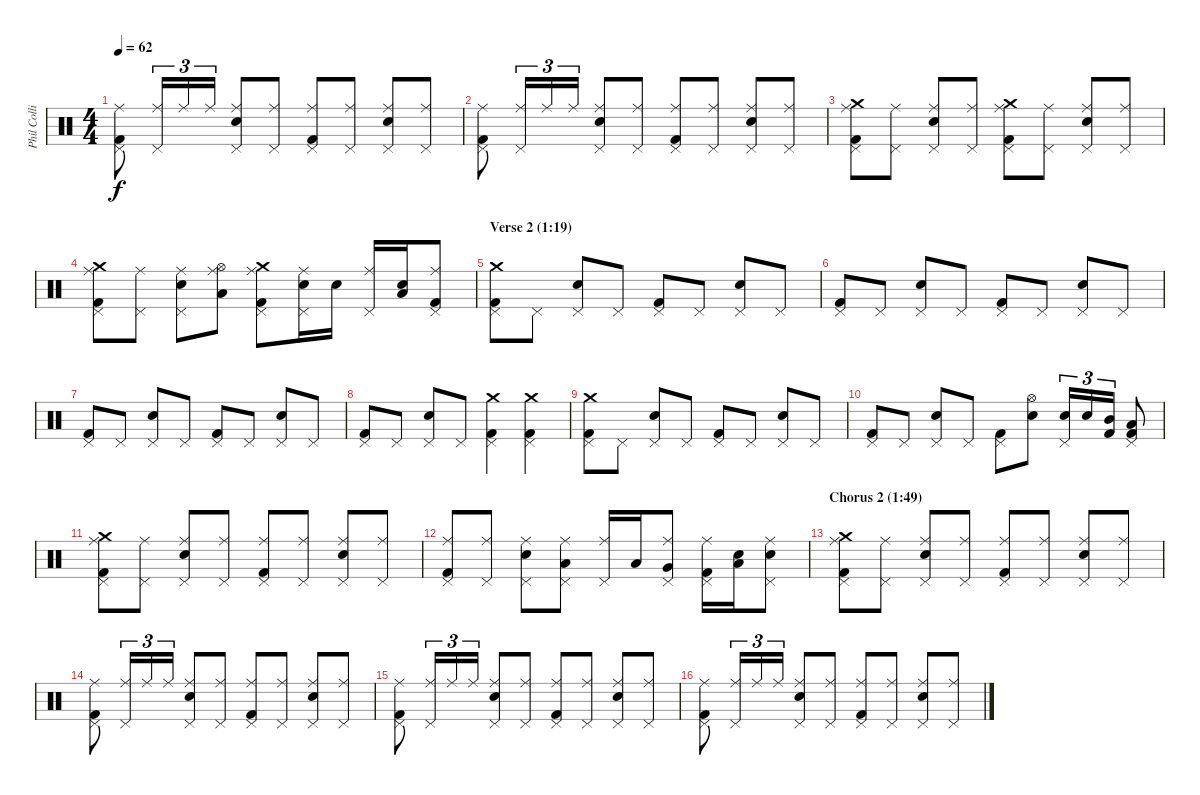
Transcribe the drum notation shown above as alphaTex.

\track ("Phil Collins (drums)" "Phil Colli") {instrument percussion}
\staff {score}
\articulation defaults
\ts (4 4)
\tempo 62
\clef neutral
\ks c
("Ride (middle)" "Pedal Hi-Hat (hit)" "Kick (hit) 2").8{dy f} ("Ride (middle)" "Pedal Hi-Hat (hit)").16{tu (3 2)} "Ride (middle)".16{tu (3 2)} "Ride (middle)".16{tu (3 2)} ("Ride (middle)" "Pedal Hi-Hat (hit)" "Electric Snare (hit)").8 ("Ride (middle)" "Pedal Hi-Hat (hit)").8 ("Ride (middle)" "Pedal Hi-Hat (hit)" "Kick (hit) 2").8 ("Ride (middle)" "Pedal Hi-Hat (hit)").8 ("Ride (middle)" "Pedal Hi-Hat (hit)" "Electric Snare (hit)").8 ("Ride (middle)" "Pedal Hi-Hat (hit)").8 |
("Ride (middle)" "Pedal Hi-Hat (hit)" "Kick (hit) 2").8 ("Ride (middle)" "Pedal Hi-Hat (hit)").16{tu (3 2)} "Ride (middle)".16{tu (3 2)} "Ride (middle)".16{tu (3 2)} ("Ride (middle)" "Pedal Hi-Hat (hit)" "Electric Snare (hit)").8 ("Ride (middle)" "Pedal Hi-Hat (hit)").8 ("Ride (middle)" "Pedal Hi-Hat (hit)" "Kick (hit) 2").8 ("Ride (middle)" "Pedal Hi-Hat (hit)").8 ("Ride (middle)" "Pedal Hi-Hat (hit)" "Electric Snare (hit)").8 ("Ride (middle)" "Pedal Hi-Hat (hit)").8 |
("Crash medium (hit)" "Ride (middle)" "Pedal Hi-Hat (hit)" "Kick (hit) 2").8 ("Ride (middle)" "Pedal Hi-Hat (hit)").8 ("Ride (middle)" "Pedal Hi-Hat (hit)" "Electric Snare (hit)").8 ("Ride (middle)" "Pedal Hi-Hat (hit)").8 ("Crash medium (hit)" "Ride (middle)" "Pedal Hi-Hat (hit)" "Kick (hit) 2").8 ("Ride (middle)" "Pedal Hi-Hat (hit)").8 ("Ride (middle)" "Pedal Hi-Hat (hit)" "Electric Snare (hit)").8 ("Ride (middle)" "Pedal Hi-Hat (hit)").8 |
("Crash medium (hit)" "Ride (middle)" "Pedal Hi-Hat (hit)" "Kick (hit) 2").8 ("Ride (middle)" "Pedal Hi-Hat (hit)").8 ("Ride (middle)" "Pedal Hi-Hat (hit)" "Electric Snare (hit)").8 ("Ride (middle)" "Hi-Hat (open)" "Low Tom (hit)").8 ("Crash medium (hit)" "Ride (middle)" "Pedal Hi-Hat (hit)" "Kick (hit) 2").8 ("Ride (middle)" "Pedal Hi-Hat (hit)" "Electric Snare (hit)").16 "Electric Snare (hit)".16 ("Ride (middle)" "Pedal Hi-Hat (hit)").16 ("Low Tom (hit)" "Electric Snare (hit)").16 ("Ride (middle)" "Pedal Hi-Hat (hit)" "Kick (hit) 2").8 |
\section ("" "Verse 2 (1:19)")
("Crash medium (hit)" "Pedal Hi-Hat (hit)" "Kick (hit) 2").8 "Pedal Hi-Hat (hit)".8 ("Pedal Hi-Hat (hit)" "Electric Snare (hit)").8 "Pedal Hi-Hat (hit)".8 ("Pedal Hi-Hat (hit)" "Kick (hit) 2").8 "Pedal Hi-Hat (hit)".8 ("Pedal Hi-Hat (hit)" "Electric Snare (hit)").8 "Pedal Hi-Hat (hit)".8 |
("Pedal Hi-Hat (hit)" "Kick (hit) 2").8 "Pedal Hi-Hat (hit)".8 ("Pedal Hi-Hat (hit)" "Electric Snare (hit)").8 "Pedal Hi-Hat (hit)".8 ("Pedal Hi-Hat (hit)" "Kick (hit) 2").8 "Pedal Hi-Hat (hit)".8 ("Pedal Hi-Hat (hit)" "Electric Snare (hit)").8 "Pedal Hi-Hat (hit)".8 |
("Pedal Hi-Hat (hit)" "Kick (hit) 2").8 "Pedal Hi-Hat (hit)".8 ("Pedal Hi-Hat (hit)" "Electric Snare (hit)").8 "Pedal Hi-Hat (hit)".8 ("Pedal Hi-Hat (hit)" "Kick (hit) 2").8 "Pedal Hi-Hat (hit)".8 ("Pedal Hi-Hat (hit)" "Electric Snare (hit)").8 "Pedal Hi-Hat (hit)".8 |
("Pedal Hi-Hat (hit)" "Kick (hit) 2").8 "Pedal Hi-Hat (hit)".8 ("Pedal Hi-Hat (hit)" "Electric Snare (hit)").8 "Pedal Hi-Hat (hit)".8 ("Crash medium (hit)" "Pedal Hi-Hat (hit)" "Kick (hit) 2").4 ("Crash medium (hit)" "Pedal Hi-Hat (hit)" "Kick (hit) 2").4 |
("Crash medium (hit)" "Pedal Hi-Hat (hit)" "Kick (hit) 2").8 "Pedal Hi-Hat (hit)".8 ("Pedal Hi-Hat (hit)" "Electric Snare (hit)").8 "Pedal Hi-Hat (hit)".8 ("Pedal Hi-Hat (hit)" "Kick (hit) 2").8 "Pedal Hi-Hat (hit)".8 ("Pedal Hi-Hat (hit)" "Electric Snare (hit)").8 "Pedal Hi-Hat (hit)".8 |
("Pedal Hi-Hat (hit)" "Kick (hit) 2").8 "Pedal Hi-Hat (hit)".8 ("Pedal Hi-Hat (hit)" "Electric Snare (hit)").8 "Pedal Hi-Hat (hit)".8 ("Pedal Hi-Hat (hit)" "Kick (hit) 2").8 ("Hi-Hat (open)" "Electric Snare (hit)").8 ("Pedal Hi-Hat (hit)" "Electric Snare (hit)").16{tu (3 2)} "Electric Snare (hit)".16{tu (3 2)} ("Mid Tom (hit)" "Kick (hit) 2").16{tu (3 2)} ("Low Tom (hit)" "Pedal Hi-Hat (hit)" "Kick (hit) 2").8 |
("Crash medium (hit)" "Ride (middle)" "Pedal Hi-Hat (hit)" "Kick (hit) 2").8 ("Ride (middle)" "Pedal Hi-Hat (hit)").8 ("Ride (middle)" "Pedal Hi-Hat (hit)" "Electric Snare (hit)").8 ("Ride (middle)" "Pedal Hi-Hat (hit)").8 ("Ride (middle)" "Pedal Hi-Hat (hit)" "Kick (hit) 2").8 ("Ride (middle)" "Pedal Hi-Hat (hit)").8 ("Ride (middle)" "Pedal Hi-Hat (hit)" "Electric Snare (hit)").8 ("Ride (middle)" "Pedal Hi-Hat (hit)").8 |
("Ride (middle)" "Pedal Hi-Hat (hit)" "Kick (hit) 2").8 ("Ride (middle)" "Pedal Hi-Hat (hit)").8 ("Ride (middle)" "Pedal Hi-Hat (hit)" "Electric Snare (hit)").8 ("Ride (middle)" "Pedal Hi-Hat (hit)" "Low Tom (hit)").8 ("Ride (middle)" "Pedal Hi-Hat (hit)").16 "Low Tom (hit)".16 ("Ride (middle)" "Pedal Hi-Hat (hit)" "Very Low Tom (hit)").8 ("Ride (middle)" "Pedal Hi-Hat (hit)" "Kick (hit) 2").16 ("Low Tom (hit)" "Electric Snare (hit)").16 ("Ride (middle)" "Pedal Hi-Hat (hit)" "Electric Snare (hit)").8 |
\section ("" "Chorus 2 (1:49)")
("Crash medium (hit)" "Ride (middle)" "Pedal Hi-Hat (hit)" "Kick (hit) 2").8 ("Ride (middle)" "Pedal Hi-Hat (hit)").8 ("Ride (middle)" "Pedal Hi-Hat (hit)" "Electric Snare (hit)").8 ("Ride (middle)" "Pedal Hi-Hat (hit)").8 ("Ride (middle)" "Pedal Hi-Hat (hit)" "Kick (hit) 2").8 ("Ride (middle)" "Pedal Hi-Hat (hit)").8 ("Ride (middle)" "Pedal Hi-Hat (hit)" "Electric Snare (hit)").8 ("Ride (middle)" "Pedal Hi-Hat (hit)").8 |
("Ride (middle)" "Pedal Hi-Hat (hit)" "Kick (hit) 2").8 ("Ride (middle)" "Pedal Hi-Hat (hit)").16{tu (3 2)} "Ride (middle)".16{tu (3 2)} "Ride (middle)".16{tu (3 2)} ("Ride (middle)" "Pedal Hi-Hat (hit)" "Electric Snare (hit)").8 ("Ride (middle)" "Pedal Hi-Hat (hit)").8 ("Ride (middle)" "Pedal Hi-Hat (hit)" "Kick (hit) 2").8 ("Ride (middle)" "Pedal Hi-Hat (hit)").8 ("Ride (middle)" "Pedal Hi-Hat (hit)" "Electric Snare (hit)").8 ("Ride (middle)" "Pedal Hi-Hat (hit)").8 |
("Ride (middle)" "Pedal Hi-Hat (hit)" "Kick (hit) 2").8 ("Ride (middle)" "Pedal Hi-Hat (hit)").16{tu (3 2)} "Ride (middle)".16{tu (3 2)} "Ride (middle)".16{tu (3 2)} ("Ride (middle)" "Pedal Hi-Hat (hit)" "Electric Snare (hit)").8 ("Ride (middle)" "Pedal Hi-Hat (hit)").8 ("Ride (middle)" "Pedal Hi-Hat (hit)" "Kick (hit) 2").8 ("Ride (middle)" "Pedal Hi-Hat (hit)").8 ("Ride (middle)" "Pedal Hi-Hat (hit)" "Electric Snare (hit)").8 ("Ride (middle)" "Pedal Hi-Hat (hit)").8 |
("Ride (middle)" "Pedal Hi-Hat (hit)" "Kick (hit) 2").8 ("Ride (middle)" "Pedal Hi-Hat (hit)").16{tu (3 2)} "Ride (middle)".16{tu (3 2)} "Ride (middle)".16{tu (3 2)} ("Ride (middle)" "Pedal Hi-Hat (hit)" "Electric Snare (hit)").8 ("Ride (middle)" "Pedal Hi-Hat (hit)").8 ("Ride (middle)" "Pedal Hi-Hat (hit)" "Kick (hit) 2").8 ("Ride (middle)" "Pedal Hi-Hat (hit)").8 ("Ride (middle)" "Pedal Hi-Hat (hit)" "Electric Snare (hit)").8 ("Ride (middle)" "Pedal Hi-Hat (hit)").8
